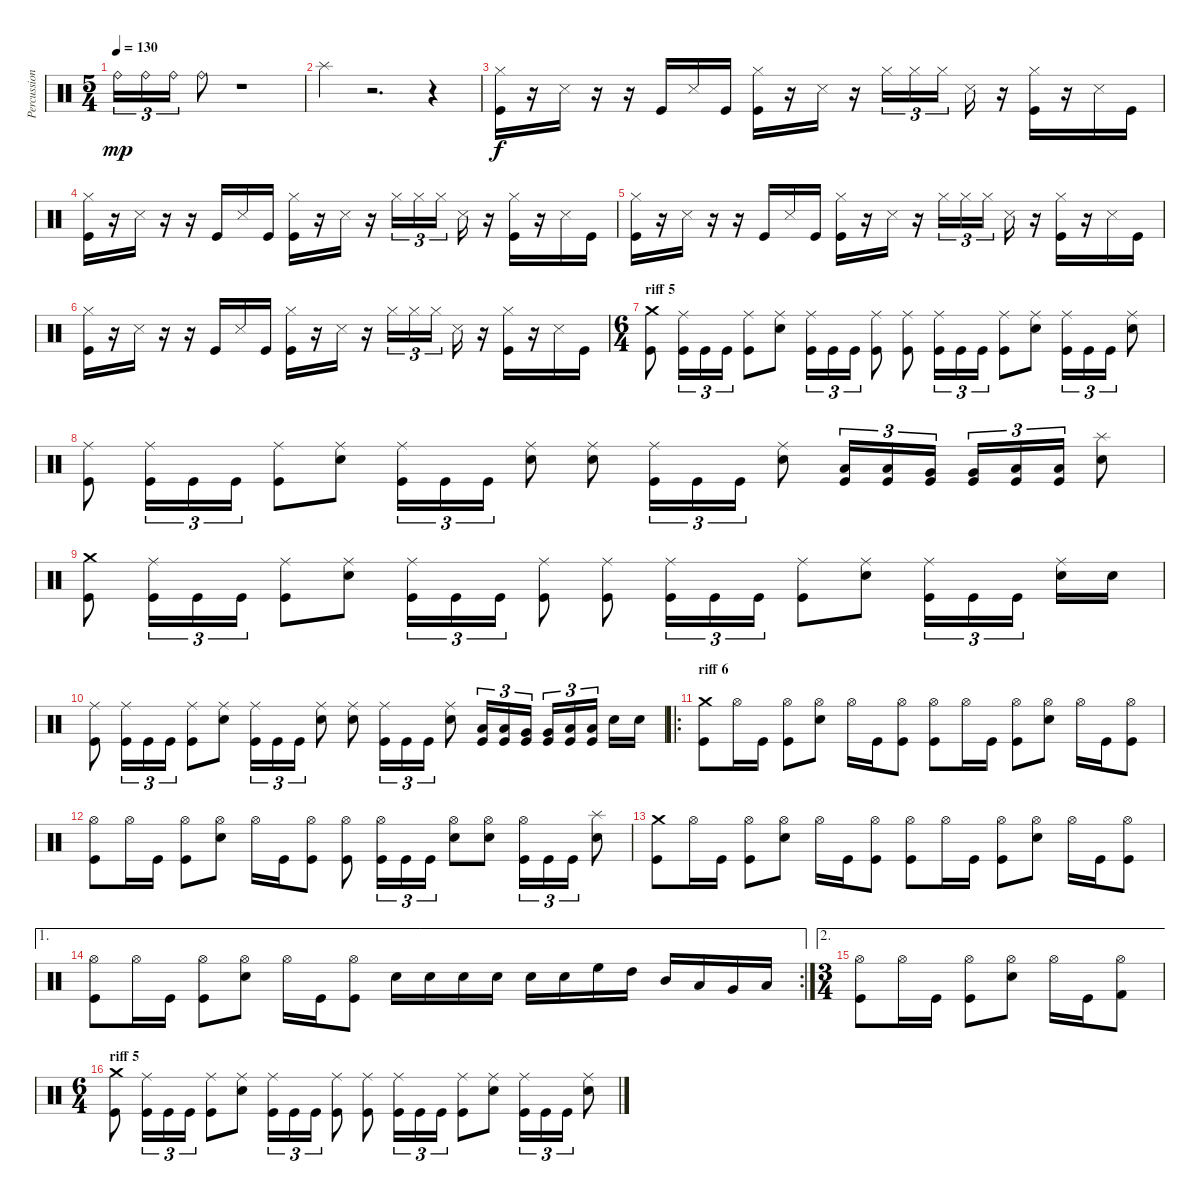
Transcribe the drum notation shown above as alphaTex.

\track ("Percussion" "Percussion") {instrument percussion}
\staff {score}
\articulation defaults
\ts (5 4)
\tempo 130
\clef neutral
\ks c "Ride (bell)".16{tu (3 2) dy mp} "Ride (bell)".16{tu (3 2)} "Ride (bell)".16{tu (3 2)} "Ride (bell)".8
r.1 |
"Splash (hit)".4 r.2{d} r.4 |
("Kick (hit)" "Hi-Hat (closed)").16{dy f} r.16 "Snare (side stick) 3".16 r.16 r.16 "Kick (hit)".16 "Snare (side stick) 3".16 "Kick (hit)".16 ("Kick (hit)" "Hi-Hat (closed)").16 r.16 "Snare (side stick) 3".16 r.16 "Hi-Hat (closed)".16{tu (3 2)} "Hi-Hat (closed)".16{tu (3 2)} "Hi-Hat (closed)".16{tu (3 2)} "Snare (side stick) 3".16 r.16 ("Kick (hit)" "Hi-Hat (closed)").16 r.16 "Snare (side stick) 3".16 "Kick (hit)".16 |
("Kick (hit)" "Hi-Hat (closed)").16 r.16 "Snare (side stick) 3".16 r.16 r.16 "Kick (hit)".16 "Snare (side stick) 3".16 "Kick (hit)".16 ("Kick (hit)" "Hi-Hat (closed)").16 r.16 "Snare (side stick) 3".16 r.16 "Hi-Hat (closed)".16{tu (3 2)} "Hi-Hat (closed)".16{tu (3 2)} "Hi-Hat (closed)".16{tu (3 2)} "Snare (side stick) 3".16 r.16 ("Kick (hit)" "Hi-Hat (closed)").16 r.16 "Snare (side stick) 3".16 "Kick (hit)".16 |
("Kick (hit)" "Hi-Hat (closed)").16 r.16 "Snare (side stick) 3".16 r.16 r.16 "Kick (hit)".16 "Snare (side stick) 3".16 "Kick (hit)".16 ("Kick (hit)" "Hi-Hat (closed)").16 r.16 "Snare (side stick) 3".16 r.16 "Hi-Hat (closed)".16{tu (3 2)} "Hi-Hat (closed)".16{tu (3 2)} "Hi-Hat (closed)".16{tu (3 2)} "Snare (side stick) 3".16 r.16 ("Kick (hit)" "Hi-Hat (closed)").16 r.16 "Snare (side stick) 3".16 "Kick (hit)".16 |
("Kick (hit)" "Hi-Hat (closed)").16 r.16 "Snare (side stick) 3".16 r.16 r.16 "Kick (hit)".16 "Snare (side stick) 3".16 "Kick (hit)".16 ("Kick (hit)" "Hi-Hat (closed)").16 r.16 "Snare (side stick) 3".16 r.16 "Hi-Hat (closed)".16{tu (3 2)} "Hi-Hat (closed)".16{tu (3 2)} "Hi-Hat (closed)".16{tu (3 2)} "Snare (side stick) 3".16 r.16 ("Kick (hit)" "Hi-Hat (closed)").16 r.16 "Snare (side stick) 3".16 "Kick (hit)".16 |
\ts (6 4)
\section ("" "riff 5")
("Kick (hit)" "Crash medium (hit)").8 ("Kick (hit)" "Ride (middle)").16{tu (3 2)} "Kick (hit)".16{tu (3 2)} "Kick (hit)".16{tu (3 2)} ("Kick (hit)" "Ride (middle)").8 ("Ride (middle)" "Electric Snare (hit)").8 ("Kick (hit)" "Ride (middle)").16{tu (3 2)} "Kick (hit)".16{tu (3 2)} "Kick (hit)".16{tu (3 2)} ("Kick (hit)" "Ride (middle)").8 ("Kick (hit)" "Ride (middle)").8 ("Kick (hit)" "Ride (middle)").16{tu (3 2)} "Kick (hit)".16{tu (3 2)} "Kick (hit)".16{tu (3 2)} ("Kick (hit)" "Ride (middle)").8 ("Ride (middle)" "Electric Snare (hit)").8 ("Kick (hit)" "Ride (middle)").16{tu (3 2)} "Kick (hit)".16{tu (3 2)} "Kick (hit)".16{tu (3 2)} ("Ride (middle)" "Electric Snare (hit)").8 |
("Kick (hit)" "Ride (middle)").8 ("Kick (hit)" "Ride (middle)").16{tu (3 2)} "Kick (hit)".16{tu (3 2)} "Kick (hit)".16{tu (3 2)} ("Kick (hit)" "Ride (middle)").8 ("Ride (middle)" "Electric Snare (hit)").8 ("Kick (hit)" "Ride (middle)").16{tu (3 2)} "Kick (hit)".16{tu (3 2)} "Kick (hit)".16{tu (3 2)} ("Ride (middle)" "Electric Snare (hit)").8 ("Ride (middle)" "Electric Snare (hit)").8 ("Kick (hit)" "Ride (middle)").16{tu (3 2)} "Kick (hit)".16{tu (3 2)} "Kick (hit)".16{tu (3 2)} ("Ride (middle)" "Electric Snare (hit)").8 ("Kick (hit)" "Low Tom (hit)").16{tu (3 2)} ("Kick (hit)" "Low Tom (hit)").16{tu (3 2)} ("Kick (hit)" "Very Low Tom (hit)").16{tu (3 2)} ("Kick (hit)" "Very Low Tom (hit)").16{tu (3 2)} ("Kick (hit)" "Low Floor Tom (hit)").16{tu (3 2)} ("Kick (hit)" "Low Floor Tom (hit)").16{tu (3 2)} ("Electric Snare (hit)" "Splash (hit)").8 |
("Kick (hit)" "Crash medium (hit)").8 ("Kick (hit)" "Ride (middle)").16{tu (3 2)} "Kick (hit)".16{tu (3 2)} "Kick (hit)".16{tu (3 2)} ("Kick (hit)" "Ride (middle)").8 ("Ride (middle)" "Electric Snare (hit)").8 ("Kick (hit)" "Ride (middle)").16{tu (3 2)} "Kick (hit)".16{tu (3 2)} "Kick (hit)".16{tu (3 2)} ("Kick (hit)" "Ride (middle)").8 ("Kick (hit)" "Ride (middle)").8 ("Kick (hit)" "Ride (middle)").16{tu (3 2)} "Kick (hit)".16{tu (3 2)} "Kick (hit)".16{tu (3 2)} ("Kick (hit)" "Ride (middle)").8 ("Ride (middle)" "Electric Snare (hit)").8 ("Kick (hit)" "Ride (middle)").16{tu (3 2)} "Kick (hit)".16{tu (3 2)} "Kick (hit)".16{tu (3 2)} ("Ride (middle)" "Electric Snare (hit)").16 "Electric Snare (hit)".16 |
("Kick (hit)" "Ride (middle)").8 ("Kick (hit)" "Ride (middle)").16{tu (3 2)} "Kick (hit)".16{tu (3 2)} "Kick (hit)".16{tu (3 2)} ("Kick (hit)" "Ride (middle)").8 ("Ride (middle)" "Electric Snare (hit)").8 ("Kick (hit)" "Ride (middle)").16{tu (3 2)} "Kick (hit)".16{tu (3 2)} "Kick (hit)".16{tu (3 2)} ("Ride (middle)" "Electric Snare (hit)").8 ("Ride (middle)" "Electric Snare (hit)").8 ("Kick (hit)" "Ride (middle)").16{tu (3 2)} "Kick (hit)".16{tu (3 2)} "Kick (hit)".16{tu (3 2)} ("Ride (middle)" "Electric Snare (hit)").8 ("Kick (hit)" "Low Tom (hit)").16{tu (3 2)} ("Kick (hit)" "Low Tom (hit)").16{tu (3 2)} ("Kick (hit)" "Very Low Tom (hit)").16{tu (3 2)} ("Kick (hit)" "Very Low Tom (hit)").16{tu (3 2)} ("Kick (hit)" "Low Floor Tom (hit)").16{tu (3 2)} ("Kick (hit)" "Low Floor Tom (hit)").16{tu (3 2)} "Electric Snare (hit)".16 "Electric Snare (hit)".16 |
\ro
\section ("" "riff 6")
("Kick (hit)" "Crash medium (hit)").8 "Hi-Hat (open)".16 "Kick (hit)".16 ("Kick (hit)" "Hi-Hat (open)").8 ("Hi-Hat (open)" "Electric Snare (hit)").8 "Hi-Hat (open)".16 "Kick (hit)".16 ("Kick (hit)" "Hi-Hat (open)").8 ("Kick (hit)" "Hi-Hat (open)").8 "Hi-Hat (open)".16 "Kick (hit)".16 ("Kick (hit)" "Hi-Hat (open)").8 ("Hi-Hat (open)" "Electric Snare (hit)").8 "Hi-Hat (open)".16 "Kick (hit)".16 ("Kick (hit)" "Hi-Hat (open)").8 |
("Kick (hit)" "Hi-Hat (open)").8 "Hi-Hat (open)".16 "Kick (hit)".16 ("Kick (hit)" "Hi-Hat (open)").8 ("Hi-Hat (open)" "Electric Snare (hit)").8 "Hi-Hat (open)".16 "Kick (hit)".16 ("Kick (hit)" "Hi-Hat (open)").8 ("Kick (hit)" "Hi-Hat (open)").8 ("Kick (hit)" "Hi-Hat (open)").16{tu (3 2)} "Kick (hit)".16{tu (3 2)} "Kick (hit)".16{tu (3 2)} ("Hi-Hat (open)" "Electric Snare (hit)").8 ("Hi-Hat (open)" "Electric Snare (hit)").8 ("Kick (hit)" "Hi-Hat (open)").16{tu (3 2)} "Kick (hit)".16{tu (3 2)} "Kick (hit)".16{tu (3 2)} ("Electric Snare (hit)" "Splash (hit)").8 |
("Kick (hit)" "Crash medium (hit)").8 "Hi-Hat (open)".16 "Kick (hit)".16 ("Kick (hit)" "Hi-Hat (open)").8 ("Hi-Hat (open)" "Electric Snare (hit)").8 "Hi-Hat (open)".16 "Kick (hit)".16 ("Kick (hit)" "Hi-Hat (open)").8 ("Kick (hit)" "Hi-Hat (open)").8 "Hi-Hat (open)".16 "Kick (hit)".16 ("Kick (hit)" "Hi-Hat (open)").8 ("Hi-Hat (open)" "Electric Snare (hit)").8 "Hi-Hat (open)".16 "Kick (hit)".16 ("Kick (hit)" "Hi-Hat (open)").8 |
\ae 1
\rc 2
("Kick (hit)" "Hi-Hat (open)").8 "Hi-Hat (open)".16 "Kick (hit)".16 ("Kick (hit)" "Hi-Hat (open)").8 ("Hi-Hat (open)" "Electric Snare (hit)").8 "Hi-Hat (open)".16 "Kick (hit)".16 ("Kick (hit)" "Hi-Hat (open)").8 "Electric Snare (hit)".16 "Electric Snare (hit)".16 "Electric Snare (hit)".16 "Electric Snare (hit)".16 "Electric Snare (hit)".16 "Electric Snare (hit)".16 "High Floor Tom (hit)".16 "High Tom (hit)".16 "Mid Tom (hit)".16 "Low Tom (hit)".16 "Very Low Tom (hit)".16 "Low Floor Tom (hit)".16 |
\ae 2
\ts (3 4)
("Kick (hit)" "Hi-Hat (open)").8 "Hi-Hat (open)".16 "Kick (hit)".16 ("Kick (hit)" "Hi-Hat (open)").8 ("Hi-Hat (open)" "Electric Snare (hit)").8 "Hi-Hat (open)".16 "Kick (hit)".16 ("Kick (hit) 2" "Hi-Hat (open)").8 |
\ts (6 4)
\section ("" "riff 5")
("Kick (hit)" "Crash medium (hit)").8 ("Kick (hit)" "Ride (middle)").16{tu (3 2)} "Kick (hit)".16{tu (3 2)} "Kick (hit)".16{tu (3 2)} ("Kick (hit)" "Ride (middle)").8 ("Ride (middle)" "Electric Snare (hit)").8 ("Kick (hit)" "Ride (middle)").16{tu (3 2)} "Kick (hit)".16{tu (3 2)} "Kick (hit)".16{tu (3 2)} ("Kick (hit)" "Ride (middle)").8 ("Kick (hit)" "Ride (middle)").8 ("Kick (hit)" "Ride (middle)").16{tu (3 2)} "Kick (hit)".16{tu (3 2)} "Kick (hit)".16{tu (3 2)} ("Kick (hit)" "Ride (middle)").8 ("Ride (middle)" "Electric Snare (hit)").8 ("Kick (hit)" "Ride (middle)").16{tu (3 2)} "Kick (hit)".16{tu (3 2)} "Kick (hit)".16{tu (3 2)} ("Ride (middle)" "Electric Snare (hit)").8
